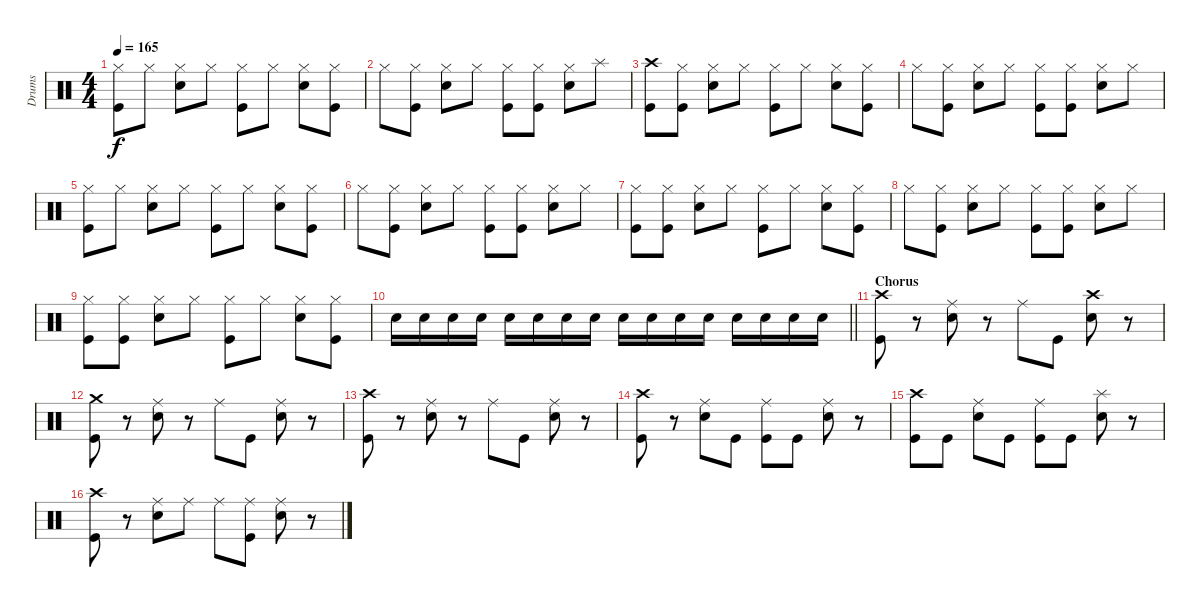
\track ("Drums" "Drums") {instrument percussion}
\staff {score}
\articulation defaults
\ts (4 4)
\tempo 165
\clef neutral
\ks c
("Hi-Hat (closed)" "Kick (hit)").8{dy f} "Hi-Hat (closed)".8 ("Hi-Hat (closed)" "Snare (hit) 2").8 "Hi-Hat (closed)".8 ("Hi-Hat (closed)" "Kick (hit)").8 "Hi-Hat (closed)".8 ("Hi-Hat (closed)" "Snare (hit) 2").8 ("Hi-Hat (closed)" "Kick (hit)").8 |
"Hi-Hat (closed)".8 ("Hi-Hat (closed)" "Kick (hit)").8 ("Hi-Hat (closed)" "Snare (hit) 2").8 "Hi-Hat (closed)".8 ("Hi-Hat (closed)" "Kick (hit)").8 ("Hi-Hat (closed)" "Kick (hit)").8 ("Hi-Hat (closed)" "Snare (hit) 2").8 "Splash (hit)".8 |
("Crash high (hit)" "Kick (hit)").8 ("Hi-Hat (closed)" "Kick (hit)").8 ("Hi-Hat (closed)" "Snare (hit) 2").8 "Hi-Hat (closed)".8 ("Hi-Hat (closed)" "Kick (hit)").8 "Hi-Hat (closed)".8 ("Hi-Hat (closed)" "Snare (hit) 2").8 ("Hi-Hat (closed)" "Kick (hit)").8 |
"Hi-Hat (closed)".8 ("Hi-Hat (closed)" "Kick (hit)").8 ("Hi-Hat (closed)" "Snare (hit) 2").8 "Hi-Hat (closed)".8 ("Hi-Hat (closed)" "Kick (hit)").8 ("Hi-Hat (closed)" "Kick (hit)").8 ("Hi-Hat (closed)" "Snare (hit) 2").8 "Hi-Hat (closed)".8 |
("Hi-Hat (closed)" "Kick (hit)").8 "Hi-Hat (closed)".8 ("Hi-Hat (closed)" "Snare (hit) 2").8 "Hi-Hat (closed)".8 ("Hi-Hat (closed)" "Kick (hit)").8 "Hi-Hat (closed)".8 ("Hi-Hat (closed)" "Snare (hit) 2").8 ("Hi-Hat (closed)" "Kick (hit)").8 |
"Hi-Hat (closed)".8 ("Hi-Hat (closed)" "Kick (hit)").8 ("Hi-Hat (closed)" "Snare (hit) 2").8 "Hi-Hat (closed)".8 ("Hi-Hat (closed)" "Kick (hit)").8 ("Hi-Hat (closed)" "Kick (hit)").8 ("Hi-Hat (closed)" "Snare (hit) 2").8 "Hi-Hat (closed)".8 |
("Hi-Hat (closed)" "Kick (hit)").8 ("Hi-Hat (closed)" "Kick (hit)").8 ("Hi-Hat (closed)" "Snare (hit) 2").8 "Hi-Hat (closed)".8 ("Hi-Hat (closed)" "Kick (hit)").8 "Hi-Hat (closed)".8 ("Hi-Hat (closed)" "Snare (hit) 2").8 ("Hi-Hat (closed)" "Kick (hit)").8 |
"Hi-Hat (closed)".8 ("Hi-Hat (closed)" "Kick (hit)").8 ("Hi-Hat (closed)" "Snare (hit) 2").8 "Hi-Hat (closed)".8 ("Hi-Hat (closed)" "Kick (hit)").8 ("Hi-Hat (closed)" "Kick (hit)").8 ("Hi-Hat (closed)" "Snare (hit) 2").8 "Hi-Hat (closed)".8 |
("Hi-Hat (closed)" "Kick (hit)").8 ("Hi-Hat (closed)" "Kick (hit)").8 ("Hi-Hat (closed)" "Snare (hit) 2").8 "Hi-Hat (closed)".8 ("Hi-Hat (closed)" "Kick (hit)").8 "Hi-Hat (closed)".8 ("Hi-Hat (closed)" "Snare (hit) 2").8 ("Hi-Hat (closed)" "Kick (hit)").8 |
\barLineRight lightlight "Snare (hit) 2".16 "Snare (hit) 2".16 "Snare (hit) 2".16 "Snare (hit) 2".16 "Snare (hit) 2".16 "Snare (hit) 2".16 "Snare (hit) 2".16 "Snare (hit) 2".16 "Snare (hit) 2".16 "Snare (hit) 2".16 "Snare (hit) 2".16 "Snare (hit) 2".16 "Snare (hit) 2".16 "Snare (hit) 2".16 "Snare (hit) 2".16 "Snare (hit) 2".16
|
\section ("" "Chorus")
("Crash high (hit)" "Kick (hit)").8 r.8 ("Ride (middle)" "Snare (hit) 2").8 r.8 "Ride (middle)".8 "Kick (hit)".8 ("Crash high (hit)" "Snare (hit) 2").8 r.8 |
("Crash medium (hit)" "Kick (hit)").8 r.8 ("Ride (middle)" "Snare (hit) 2").8 r.8 "Ride (middle)".8 "Kick (hit)".8 ("Ride (middle)" "Snare (hit) 2").8 r.8 |
("Crash high (hit)" "Kick (hit)").8 r.8 ("Ride (middle)" "Snare (hit) 2").8 r.8 "Ride (middle)".8 "Kick (hit)".8 ("Ride (middle)" "Snare (hit) 2").8 r.8 |
("Crash high (hit)" "Kick (hit)").8 r.8 ("Ride (middle)" "Snare (hit) 2").8 "Kick (hit)".8 ("Ride (middle)" "Kick (hit)").8 "Kick (hit)".8 ("Ride (middle)" "Snare (hit) 2").8 r.8 |
("Crash high (hit)" "Kick (hit)").8 "Kick (hit)".8 ("Ride (middle)" "Snare (hit) 2").8 "Kick (hit)".8 ("Ride (middle)" "Kick (hit)").8 "Kick (hit)".8 ("Splash (hit)" "Snare (hit) 2").8 r.8 |
("Crash high (hit)" "Kick (hit)").8 r.8 ("Ride (middle)" "Snare (hit) 2").8 "Ride (middle)".8 "Ride (middle)".8 ("Ride (middle)" "Kick (hit)").8 ("Ride (middle)" "Snare (hit) 2").8 r.8
